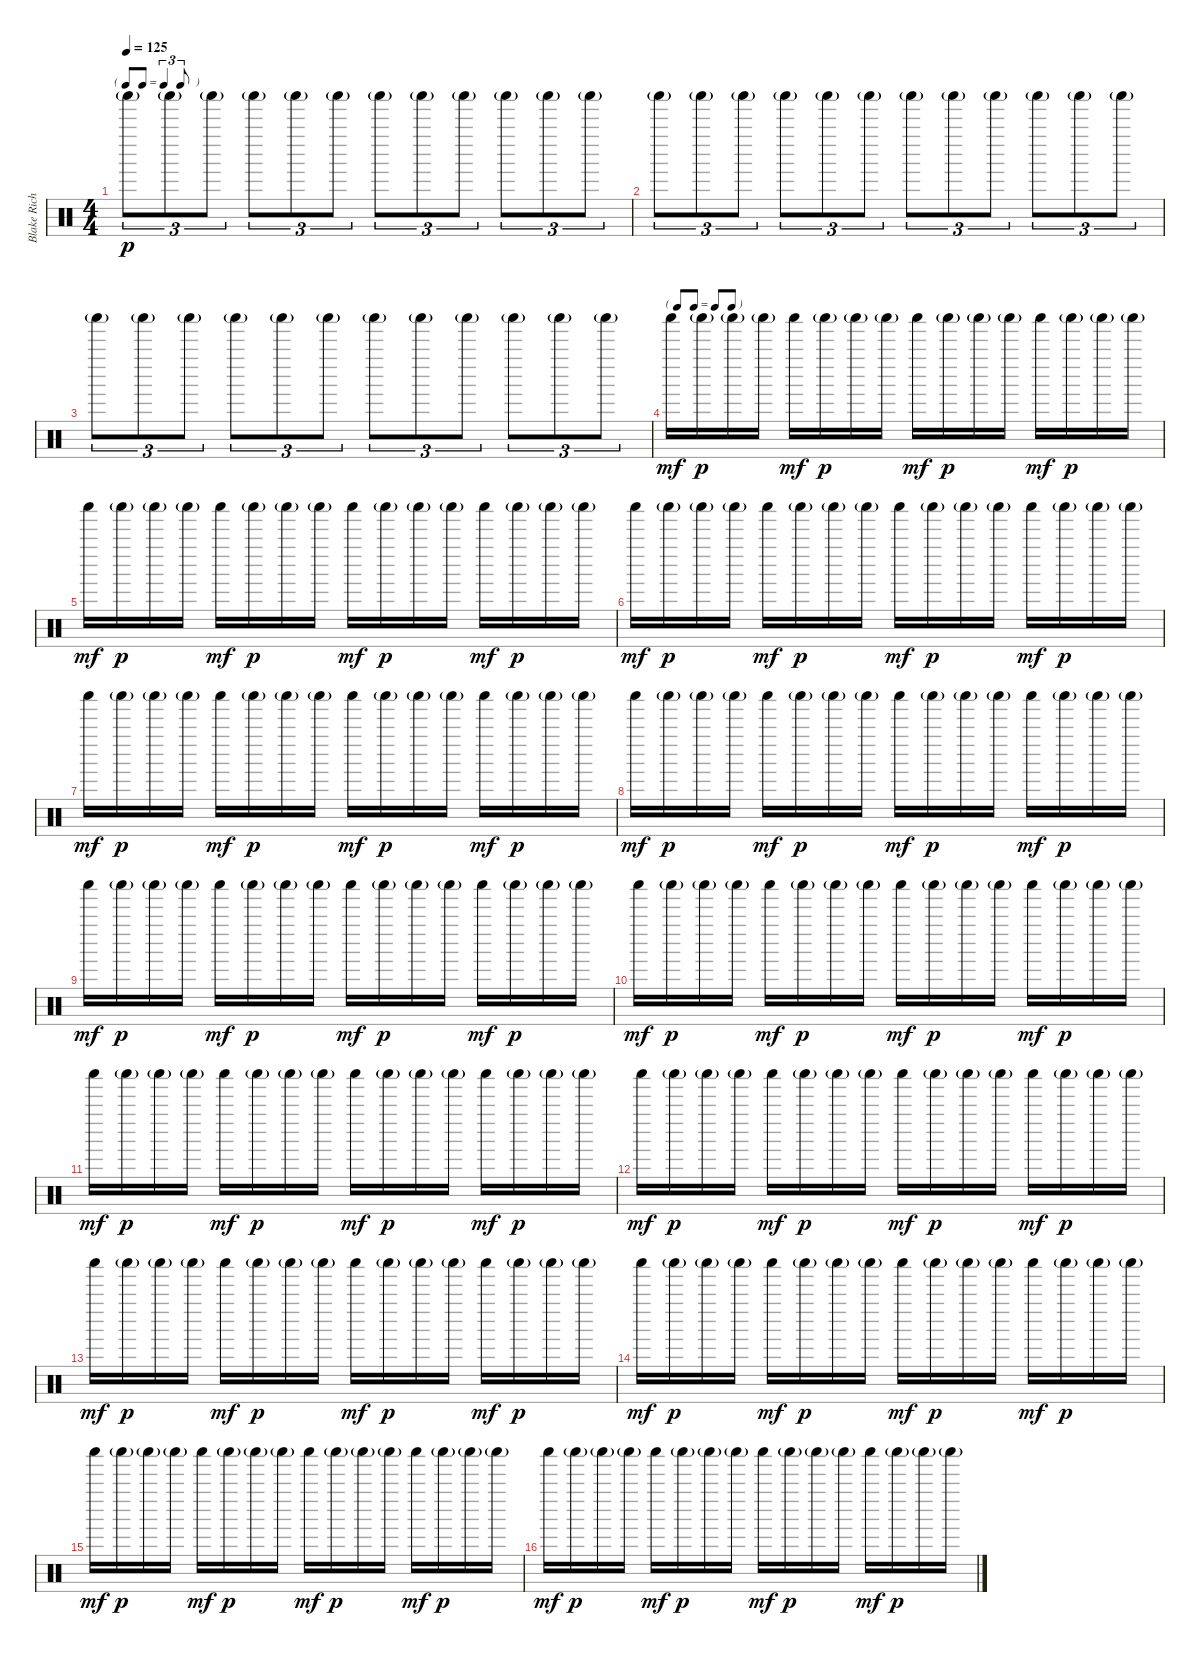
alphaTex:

\track ("Blake Richardson - Shaker" "Blake Rich") {instrument percussion}
\staff {score}
\articulation defaults
\ts (4 4)
\tf triplet8th
\tempo 125
\clef neutral
\ks c "Shaker (hit)"{g}.8{tu (3 2) dy p} "Shaker (hit)"{g}.8{tu (3 2)} "Shaker (hit)"{g}.8{tu (3 2)} "Shaker (hit)"{g}.8{tu (3 2)} "Shaker (hit)"{g}.8{tu (3 2)} "Shaker (hit)"{g}.8{tu (3 2)} "Shaker (hit)"{g}.8{tu (3 2)} "Shaker (hit)"{g}.8{tu (3 2)} "Shaker (hit)"{g}.8{tu (3 2)} "Shaker (hit)"{g}.8{tu (3 2)} "Shaker (hit)"{g}.8{tu (3 2)} "Shaker (hit)"{g}.8{tu (3 2)}
|
"Shaker (hit)"{g}.8{tu (3 2)} "Shaker (hit)"{g}.8{tu (3 2)} "Shaker (hit)"{g}.8{tu (3 2)} "Shaker (hit)"{g}.8{tu (3 2)} "Shaker (hit)"{g}.8{tu (3 2)} "Shaker (hit)"{g}.8{tu (3 2)} "Shaker (hit)"{g}.8{tu (3 2)} "Shaker (hit)"{g}.8{tu (3 2)} "Shaker (hit)"{g}.8{tu (3 2)} "Shaker (hit)"{g}.8{tu (3 2)} "Shaker (hit)"{g}.8{tu (3 2)} "Shaker (hit)"{g}.8{tu (3 2)} |
"Shaker (hit)"{g}.8{tu (3 2)} "Shaker (hit)"{g}.8{tu (3 2)} "Shaker (hit)"{g}.8{tu (3 2)} "Shaker (hit)"{g}.8{tu (3 2)} "Shaker (hit)"{g}.8{tu (3 2)} "Shaker (hit)"{g}.8{tu (3 2)} "Shaker (hit)"{g}.8{tu (3 2)} "Shaker (hit)"{g}.8{tu (3 2)} "Shaker (hit)"{g}.8{tu (3 2)} "Shaker (hit)"{g}.8{tu (3 2)} "Shaker (hit)"{g}.8{tu (3 2)} "Shaker (hit)"{g}.8{tu (3 2)} |
\tf none "Shaker (hit)".16{dy mf} "Shaker (hit)"{g}.16{dy p} "Shaker (hit)"{g}.16 "Shaker (hit)"{g}.16 "Shaker (hit)".16{dy mf} "Shaker (hit)"{g}.16{dy p} "Shaker (hit)"{g}.16 "Shaker (hit)"{g}.16 "Shaker (hit)".16{dy mf} "Shaker (hit)"{g}.16{dy p} "Shaker (hit)"{g}.16 "Shaker (hit)"{g}.16 "Shaker (hit)".16{dy mf} "Shaker (hit)"{g}.16{dy p} "Shaker (hit)"{g}.16 "Shaker (hit)"{g}.16
|
"Shaker (hit)".16{dy mf} "Shaker (hit)"{g}.16{dy p} "Shaker (hit)"{g}.16 "Shaker (hit)"{g}.16 "Shaker (hit)".16{dy mf} "Shaker (hit)"{g}.16{dy p} "Shaker (hit)"{g}.16 "Shaker (hit)"{g}.16 "Shaker (hit)".16{dy mf} "Shaker (hit)"{g}.16{dy p} "Shaker (hit)"{g}.16 "Shaker (hit)"{g}.16 "Shaker (hit)".16{dy mf} "Shaker (hit)"{g}.16{dy p} "Shaker (hit)"{g}.16 "Shaker (hit)"{g}.16 |
"Shaker (hit)".16{dy mf} "Shaker (hit)"{g}.16{dy p} "Shaker (hit)"{g}.16 "Shaker (hit)"{g}.16 "Shaker (hit)".16{dy mf} "Shaker (hit)"{g}.16{dy p} "Shaker (hit)"{g}.16 "Shaker (hit)"{g}.16 "Shaker (hit)".16{dy mf} "Shaker (hit)"{g}.16{dy p} "Shaker (hit)"{g}.16 "Shaker (hit)"{g}.16 "Shaker (hit)".16{dy mf} "Shaker (hit)"{g}.16{dy p} "Shaker (hit)"{g}.16 "Shaker (hit)"{g}.16 |
"Shaker (hit)".16{dy mf} "Shaker (hit)"{g}.16{dy p} "Shaker (hit)"{g}.16 "Shaker (hit)"{g}.16 "Shaker (hit)".16{dy mf} "Shaker (hit)"{g}.16{dy p} "Shaker (hit)"{g}.16 "Shaker (hit)"{g}.16 "Shaker (hit)".16{dy mf} "Shaker (hit)"{g}.16{dy p} "Shaker (hit)"{g}.16 "Shaker (hit)"{g}.16 "Shaker (hit)".16{dy mf} "Shaker (hit)"{g}.16{dy p} "Shaker (hit)"{g}.16 "Shaker (hit)"{g}.16 |
"Shaker (hit)".16{dy mf} "Shaker (hit)"{g}.16{dy p} "Shaker (hit)"{g}.16 "Shaker (hit)"{g}.16 "Shaker (hit)".16{dy mf} "Shaker (hit)"{g}.16{dy p} "Shaker (hit)"{g}.16 "Shaker (hit)"{g}.16 "Shaker (hit)".16{dy mf} "Shaker (hit)"{g}.16{dy p} "Shaker (hit)"{g}.16 "Shaker (hit)"{g}.16 "Shaker (hit)".16{dy mf} "Shaker (hit)"{g}.16{dy p} "Shaker (hit)"{g}.16 "Shaker (hit)"{g}.16 |
"Shaker (hit)".16{dy mf} "Shaker (hit)"{g}.16{dy p} "Shaker (hit)"{g}.16 "Shaker (hit)"{g}.16 "Shaker (hit)".16{dy mf} "Shaker (hit)"{g}.16{dy p} "Shaker (hit)"{g}.16 "Shaker (hit)"{g}.16 "Shaker (hit)".16{dy mf} "Shaker (hit)"{g}.16{dy p} "Shaker (hit)"{g}.16 "Shaker (hit)"{g}.16 "Shaker (hit)".16{dy mf} "Shaker (hit)"{g}.16{dy p} "Shaker (hit)"{g}.16 "Shaker (hit)"{g}.16 |
"Shaker (hit)".16{dy mf} "Shaker (hit)"{g}.16{dy p} "Shaker (hit)"{g}.16 "Shaker (hit)"{g}.16 "Shaker (hit)".16{dy mf} "Shaker (hit)"{g}.16{dy p} "Shaker (hit)"{g}.16 "Shaker (hit)"{g}.16 "Shaker (hit)".16{dy mf} "Shaker (hit)"{g}.16{dy p} "Shaker (hit)"{g}.16 "Shaker (hit)"{g}.16 "Shaker (hit)".16{dy mf} "Shaker (hit)"{g}.16{dy p} "Shaker (hit)"{g}.16 "Shaker (hit)"{g}.16 |
"Shaker (hit)".16{dy mf} "Shaker (hit)"{g}.16{dy p} "Shaker (hit)"{g}.16 "Shaker (hit)"{g}.16 "Shaker (hit)".16{dy mf} "Shaker (hit)"{g}.16{dy p} "Shaker (hit)"{g}.16 "Shaker (hit)"{g}.16 "Shaker (hit)".16{dy mf} "Shaker (hit)"{g}.16{dy p} "Shaker (hit)"{g}.16 "Shaker (hit)"{g}.16 "Shaker (hit)".16{dy mf} "Shaker (hit)"{g}.16{dy p} "Shaker (hit)"{g}.16 "Shaker (hit)"{g}.16 |
"Shaker (hit)".16{dy mf} "Shaker (hit)"{g}.16{dy p} "Shaker (hit)"{g}.16 "Shaker (hit)"{g}.16 "Shaker (hit)".16{dy mf} "Shaker (hit)"{g}.16{dy p} "Shaker (hit)"{g}.16 "Shaker (hit)"{g}.16 "Shaker (hit)".16{dy mf} "Shaker (hit)"{g}.16{dy p} "Shaker (hit)"{g}.16 "Shaker (hit)"{g}.16 "Shaker (hit)".16{dy mf} "Shaker (hit)"{g}.16{dy p} "Shaker (hit)"{g}.16 "Shaker (hit)"{g}.16 |
"Shaker (hit)".16{dy mf} "Shaker (hit)"{g}.16{dy p} "Shaker (hit)"{g}.16 "Shaker (hit)"{g}.16 "Shaker (hit)".16{dy mf} "Shaker (hit)"{g}.16{dy p} "Shaker (hit)"{g}.16 "Shaker (hit)"{g}.16 "Shaker (hit)".16{dy mf} "Shaker (hit)"{g}.16{dy p} "Shaker (hit)"{g}.16 "Shaker (hit)"{g}.16 "Shaker (hit)".16{dy mf} "Shaker (hit)"{g}.16{dy p} "Shaker (hit)"{g}.16 "Shaker (hit)"{g}.16 |
"Shaker (hit)".16{dy mf} "Shaker (hit)"{g}.16{dy p} "Shaker (hit)"{g}.16 "Shaker (hit)"{g}.16 "Shaker (hit)".16{dy mf} "Shaker (hit)"{g}.16{dy p} "Shaker (hit)"{g}.16 "Shaker (hit)"{g}.16 "Shaker (hit)".16{dy mf} "Shaker (hit)"{g}.16{dy p} "Shaker (hit)"{g}.16 "Shaker (hit)"{g}.16 "Shaker (hit)".16{dy mf} "Shaker (hit)"{g}.16{dy p} "Shaker (hit)"{g}.16 "Shaker (hit)"{g}.16 |
"Shaker (hit)".16{dy mf} "Shaker (hit)"{g}.16{dy p} "Shaker (hit)"{g}.16 "Shaker (hit)"{g}.16 "Shaker (hit)".16{dy mf} "Shaker (hit)"{g}.16{dy p} "Shaker (hit)"{g}.16 "Shaker (hit)"{g}.16 "Shaker (hit)".16{dy mf} "Shaker (hit)"{g}.16{dy p} "Shaker (hit)"{g}.16 "Shaker (hit)"{g}.16 "Shaker (hit)".16{dy mf} "Shaker (hit)"{g}.16{dy p} "Shaker (hit)"{g}.16 "Shaker (hit)"{g}.16 |
"Shaker (hit)".16{dy mf} "Shaker (hit)"{g}.16{dy p} "Shaker (hit)"{g}.16 "Shaker (hit)"{g}.16 "Shaker (hit)".16{dy mf} "Shaker (hit)"{g}.16{dy p} "Shaker (hit)"{g}.16 "Shaker (hit)"{g}.16 "Shaker (hit)".16{dy mf} "Shaker (hit)"{g}.16{dy p} "Shaker (hit)"{g}.16 "Shaker (hit)"{g}.16 "Shaker (hit)".16{dy mf} "Shaker (hit)"{g}.16{dy p} "Shaker (hit)"{g}.16 "Shaker (hit)"{g}.16
